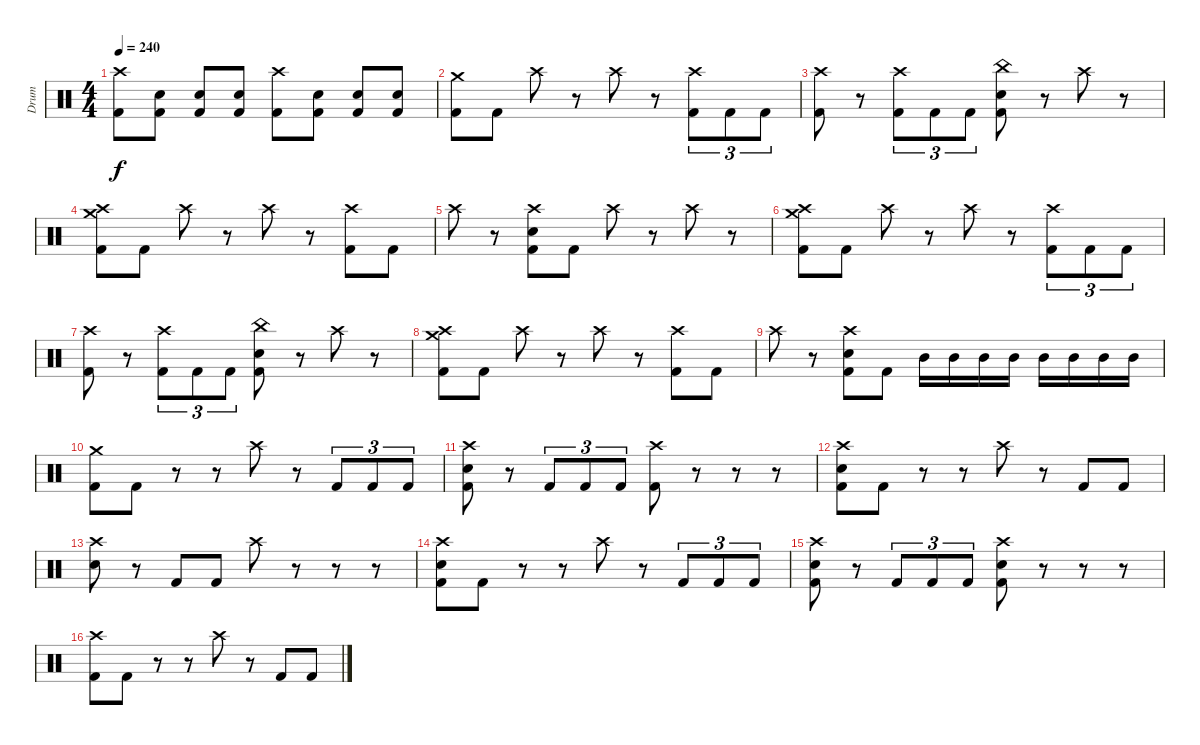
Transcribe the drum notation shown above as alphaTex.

\track ("Drum" "Drum") {instrument percussion}
\staff {score}
\articulation defaults
\ts (4 4)
\tempo 240
\clef neutral
\ks c
("Crash high (hit)" "Kick (hit) 2").8{dy f} ("Electric Snare (hit)" "Kick (hit) 2").8 ("Electric Snare (hit)" "Kick (hit) 2").8 ("Electric Snare (hit)" "Kick (hit) 2").8 ("Crash high (hit)" "Kick (hit) 2").8 ("Electric Snare (hit)" "Kick (hit) 2").8 ("Electric Snare (hit)" "Kick (hit) 2").8 ("Electric Snare (hit)" "Kick (hit) 2").8 |
("Crash medium (hit)" "Kick (hit) 2").8 "Kick (hit) 2".8 "Crash high (hit)".8 r.8 "Crash high (hit)".8 r.8 ("Crash high (hit)" "Kick (hit) 2").8{tu (3 2)} "Kick (hit) 2".8{tu (3 2)} "Kick (hit) 2".8{tu (3 2)} |
("Crash high (hit)" "Kick (hit) 2").8 r.8 ("Crash high (hit)" "Kick (hit) 2").8{tu (3 2)} "Kick (hit) 2".8{tu (3 2)} "Kick (hit) 2".8{tu (3 2)} ("China (hit)" "Electric Snare (hit)" "Kick (hit) 2").8 r.8 "Crash high (hit)".8 r.8 |
("Crash medium (hit)" "Crash high (hit)" "Kick (hit) 2").8 "Kick (hit) 2".8 "Crash high (hit)".8 r.8 "Crash high (hit)".8 r.8 ("Crash high (hit)" "Kick (hit) 2").8 "Kick (hit) 2".8 |
"Crash high (hit)".8 r.8 ("Crash high (hit)" "Electric Snare (hit)" "Kick (hit) 2").8 "Kick (hit) 2".8 "Crash high (hit)".8 r.8 "Crash high (hit)".8 r.8 |
("Crash medium (hit)" "Crash high (hit)" "Kick (hit) 2").8 "Kick (hit) 2".8 "Crash high (hit)".8 r.8 "Crash high (hit)".8 r.8 ("Crash high (hit)" "Kick (hit) 2").8{tu (3 2)} "Kick (hit) 2".8{tu (3 2)} "Kick (hit) 2".8{tu (3 2)} |
("Crash high (hit)" "Kick (hit) 2").8 r.8 ("Crash high (hit)" "Kick (hit) 2").8{tu (3 2)} "Kick (hit) 2".8{tu (3 2)} "Kick (hit) 2".8{tu (3 2)} ("China (hit)" "Electric Snare (hit)" "Kick (hit) 2").8 r.8 "Crash high (hit)".8 r.8 |
("Crash medium (hit)" "Crash high (hit)" "Kick (hit) 2").8 "Kick (hit) 2".8 "Crash high (hit)".8 r.8 "Crash high (hit)".8 r.8 ("Crash high (hit)" "Kick (hit) 2").8 "Kick (hit) 2".8 |
"Crash high (hit)".8 r.8 ("Crash high (hit)" "Electric Snare (hit)" "Kick (hit) 2").8 "Kick (hit) 2".8 "Mid Tom (hit)".16 "Mid Tom (hit)".16 "Mid Tom (hit)".16 "Mid Tom (hit)".16 "Mid Tom (hit)".16 "Mid Tom (hit)".16 "Mid Tom (hit)".16 "Mid Tom (hit)".16 |
("Crash medium (hit)" "Kick (hit) 2").8 "Kick (hit) 2".8 r.8 r.8 "Crash high (hit)".8 r.8 "Kick (hit) 2".8{tu (3 2)} "Kick (hit) 2".8{tu (3 2)} "Kick (hit) 2".8{tu (3 2)} |
("Crash high (hit)" "Electric Snare (hit)" "Kick (hit) 2").8 r.8 "Kick (hit) 2".8{tu (3 2)} "Kick (hit) 2".8{tu (3 2)} "Kick (hit) 2".8{tu (3 2)} ("Crash high (hit)" "Kick (hit) 2").8 r.8 r.8 r.8 |
("Crash high (hit)" "Electric Snare (hit)" "Kick (hit) 2").8 "Kick (hit) 2".8 r.8 r.8 "Crash high (hit)".8 r.8 "Kick (hit) 2".8 "Kick (hit) 2".8 |
("Crash high (hit)" "Electric Snare (hit)").8 r.8 "Kick (hit) 2".8 "Kick (hit) 2".8 "Crash high (hit)".8 r.8 r.8 r.8 |
("Crash high (hit)" "Electric Snare (hit)" "Kick (hit) 2").8 "Kick (hit) 2".8 r.8 r.8 "Crash high (hit)".8 r.8 "Kick (hit) 2".8{tu (3 2)} "Kick (hit) 2".8{tu (3 2)} "Kick (hit) 2".8{tu (3 2)} |
("Crash high (hit)" "Electric Snare (hit)" "Kick (hit) 2").8 r.8 "Kick (hit) 2".8{tu (3 2)} "Kick (hit) 2".8{tu (3 2)} "Kick (hit) 2".8{tu (3 2)} ("Crash high (hit)" "Electric Snare (hit)" "Kick (hit) 2").8 r.8 r.8 r.8 |
("Crash high (hit)" "Kick (hit) 2").8 "Kick (hit) 2".8 r.8 r.8 "Crash high (hit)".8 r.8 "Kick (hit) 2".8 "Kick (hit) 2".8
